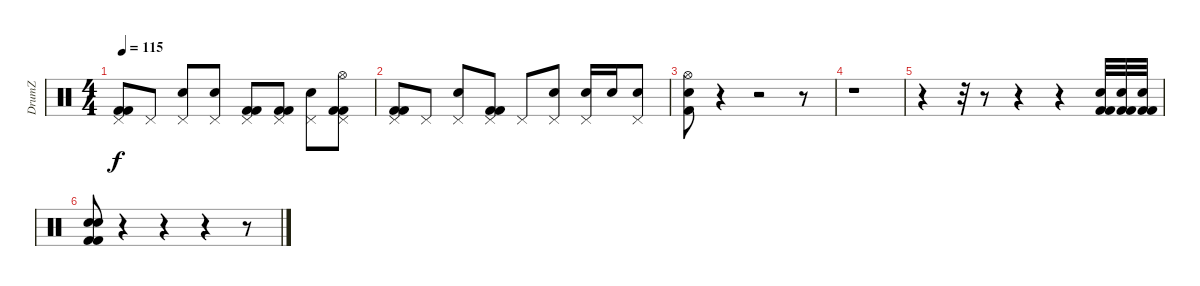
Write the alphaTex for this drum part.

\track ("DrumZ" "DrumZ") {instrument percussion}
\staff {score}
\articulation defaults
\ts (4 4)
\tempo 115
\clef neutral
\ks c
("Pedal Hi-Hat (hit)" "Kick (hit) 2" "Kick (hit) 2").8{dy f} "Pedal Hi-Hat (hit)".8 ("Pedal Hi-Hat (hit)" "Electric Snare (hit)").8 ("Pedal Hi-Hat (hit)" "Electric Snare (hit)").8 ("Pedal Hi-Hat (hit)" "Kick (hit) 2" "Kick (hit) 2").8 ("Pedal Hi-Hat (hit)" "Kick (hit) 2" "Kick (hit) 2").8 ("Pedal Hi-Hat (hit)" "Electric Snare (hit)").8 ("Pedal Hi-Hat (hit)" "Hi-Hat (open)" "Kick (hit) 2" "Kick (hit) 2").8 |
("Pedal Hi-Hat (hit)" "Kick (hit) 2" "Kick (hit) 2").8 "Pedal Hi-Hat (hit)".8 ("Pedal Hi-Hat (hit)" "Electric Snare (hit)").8 ("Pedal Hi-Hat (hit)" "Kick (hit) 2" "Kick (hit) 2").8 "Pedal Hi-Hat (hit)".8 ("Pedal Hi-Hat (hit)" "Electric Snare (hit)").8 ("Pedal Hi-Hat (hit)" "Electric Snare (hit)").16 "Electric Snare (hit)".16 ("Pedal Hi-Hat (hit)" "Electric Snare (hit)").8 |
("Hi-Hat (open)" "Electric Snare (hit)" "Kick (hit) 2").8 r.4 r.2 r.8 |
r.1 |
r.4 r.32 r.8 r.4 r.4 ("Electric Snare (hit)" "Kick (hit) 2" "Kick (hit) 2").32 ("Electric Snare (hit)" "Kick (hit) 2" "Kick (hit) 2").32 ("Electric Snare (hit)" "Kick (hit) 2" "Kick (hit) 2").32 |
("Kick (hit) 2" "Snare (hit) 2" "Electric Snare (hit)" "Kick (hit) 2").8 r.4 r.4 r.4 r.8
